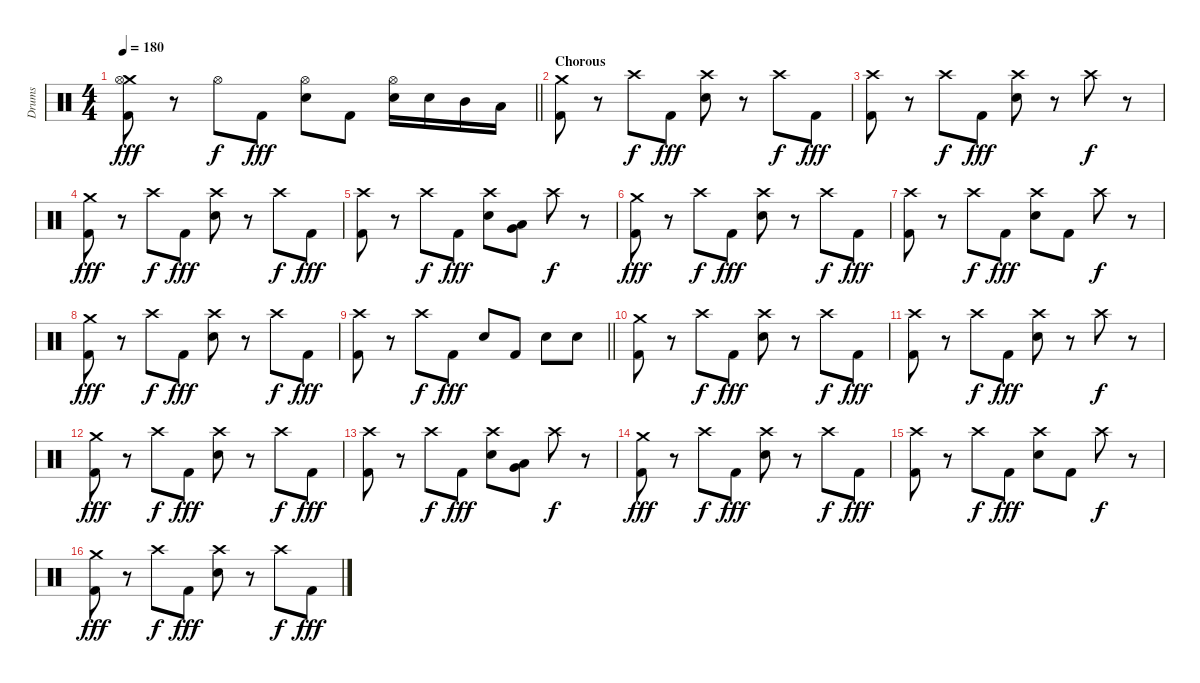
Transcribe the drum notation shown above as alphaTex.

\track ("Drums" "Drums") {instrument percussion}
\staff {score}
\articulation defaults
\ts (4 4)
\tempo 180
\clef neutral
\barLineRight lightlight
\ks c
("Crash medium (hit)" "Hi-Hat (open)" "Kick (hit) 2").8{dy fff} r.8 "Hi-Hat (open)".8{dy f} "Kick (hit) 2".8{dy fff} ("Hi-Hat (open)" "Electric Snare (hit)").8 "Kick (hit) 2".8 ("Hi-Hat (open)" "Electric Snare (hit)").16 "Electric Snare (hit)".16 "Mid Tom (hit)".16 "Low Tom (hit)".16 |
\section ("" "Chorous")
("Crash medium (hit)" "Kick (hit) 2").8 r.8 "Crash high (hit)".8{dy f} "Kick (hit) 2".8{dy fff} ("Crash high (hit)" "Electric Snare (hit)").8 r.8 "Crash high (hit)".8{dy f} "Kick (hit) 2".8{dy fff} |
("Crash high (hit)" "Kick (hit) 2").8 r.8 "Crash high (hit)".8{dy f} "Kick (hit) 2".8{dy fff} ("Crash high (hit)" "Electric Snare (hit)").8 r.8 "Crash high (hit)".8{dy f} r.8 |
("Crash medium (hit)" "Kick (hit) 2").8{dy fff} r.8 "Crash high (hit)".8{dy f} "Kick (hit) 2".8{dy fff} ("Crash high (hit)" "Electric Snare (hit)").8 r.8 "Crash high (hit)".8{dy f} "Kick (hit) 2".8{dy fff} |
("Crash high (hit)" "Kick (hit) 2").8 r.8 "Crash high (hit)".8{dy f} "Kick (hit) 2".8{dy fff} ("Crash high (hit)" "Electric Snare (hit)").8 ("Low Tom (hit)" "Very Low Tom (hit)").8 "Crash high (hit)".8{dy f} r.8 |
("Crash medium (hit)" "Kick (hit) 2").8{dy fff} r.8 "Crash high (hit)".8{dy f} "Kick (hit) 2".8{dy fff} ("Crash high (hit)" "Electric Snare (hit)").8 r.8 "Crash high (hit)".8{dy f} "Kick (hit) 2".8{dy fff} |
("Crash high (hit)" "Kick (hit) 2").8 r.8 "Crash high (hit)".8{dy f} "Kick (hit) 2".8{dy fff} ("Crash high (hit)" "Electric Snare (hit)").8 "Kick (hit) 2".8 "Crash high (hit)".8{dy f} r.8 |
("Crash medium (hit)" "Kick (hit) 2").8{dy fff} r.8 "Crash high (hit)".8{dy f} "Kick (hit) 2".8{dy fff} ("Crash high (hit)" "Electric Snare (hit)").8 r.8 "Crash high (hit)".8{dy f} "Kick (hit) 2".8{dy fff} |
\barLineRight lightlight
("Crash high (hit)" "Kick (hit) 2").8 r.8 "Crash high (hit)".8{dy f} "Kick (hit) 2".8{dy fff} "Electric Snare (hit)".8 "Kick (hit) 2".8 "Electric Snare (hit)".8 "Electric Snare (hit)".8 |
\section ("" "")
("Crash medium (hit)" "Kick (hit) 2").8 r.8 "Crash high (hit)".8{dy f} "Kick (hit) 2".8{dy fff} ("Crash high (hit)" "Electric Snare (hit)").8 r.8 "Crash high (hit)".8{dy f} "Kick (hit) 2".8{dy fff} |
("Crash high (hit)" "Kick (hit) 2").8 r.8 "Crash high (hit)".8{dy f} "Kick (hit) 2".8{dy fff} ("Crash high (hit)" "Electric Snare (hit)").8 r.8 "Crash high (hit)".8{dy f} r.8 |
("Crash medium (hit)" "Kick (hit) 2").8{dy fff} r.8 "Crash high (hit)".8{dy f} "Kick (hit) 2".8{dy fff} ("Crash high (hit)" "Electric Snare (hit)").8 r.8 "Crash high (hit)".8{dy f} "Kick (hit) 2".8{dy fff} |
("Crash high (hit)" "Kick (hit) 2").8 r.8 "Crash high (hit)".8{dy f} "Kick (hit) 2".8{dy fff} ("Crash high (hit)" "Electric Snare (hit)").8 ("Low Tom (hit)" "Very Low Tom (hit)").8 "Crash high (hit)".8{dy f} r.8 |
("Crash medium (hit)" "Kick (hit) 2").8{dy fff} r.8 "Crash high (hit)".8{dy f} "Kick (hit) 2".8{dy fff} ("Crash high (hit)" "Electric Snare (hit)").8 r.8 "Crash high (hit)".8{dy f} "Kick (hit) 2".8{dy fff} |
("Crash high (hit)" "Kick (hit) 2").8 r.8 "Crash high (hit)".8{dy f} "Kick (hit) 2".8{dy fff} ("Crash high (hit)" "Electric Snare (hit)").8 "Kick (hit) 2".8 "Crash high (hit)".8{dy f} r.8 |
("Crash medium (hit)" "Kick (hit) 2").8{dy fff} r.8 "Crash high (hit)".8{dy f} "Kick (hit) 2".8{dy fff} ("Crash high (hit)" "Electric Snare (hit)").8 r.8 "Crash high (hit)".8{dy f} "Kick (hit) 2".8{dy fff}
